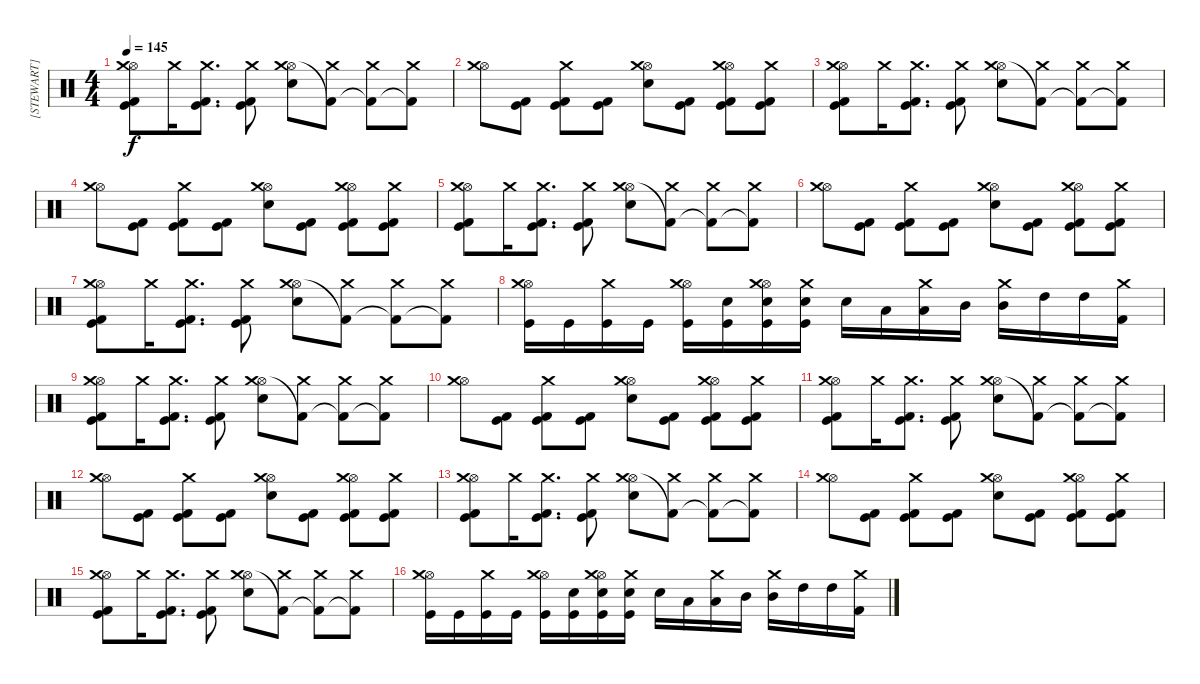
\track ("[STEWART]" "[STEWART]") {instrument percussion}
\staff {score}
\articulation defaults
\ts (4 4)
\tempo 145
\clef neutral
\ks c
("Hi-Hat (open)" "Crash medium (hit)" "Kick (hit) 2" "Kick (hit)").8{dy f} "Crash medium (hit)".16 ("Crash medium (hit)" "Kick (hit) 2" "Kick (hit)").8{d} ("Crash medium (hit)" "Kick (hit) 2" "Kick (hit)").8 ("Hi-Hat (open)" "Crash medium (hit)" "Electric Snare (hit)").8 ("Crash medium (hit)" "Kick (hit) 2"{t}).8 ("Crash medium (hit)" "Kick (hit) 2"{t}).8 ("Crash medium (hit)" "Kick (hit) 2"{t}).8 |
("Hi-Hat (open)" "Crash medium (hit)").8 ("Kick (hit) 2" "Kick (hit)").8 ("Crash medium (hit)" "Kick (hit) 2" "Kick (hit)").8 ("Kick (hit) 2" "Kick (hit)").8 ("Hi-Hat (open)" "Crash medium (hit)" "Electric Snare (hit)").8 ("Kick (hit) 2" "Kick (hit)").8 ("Hi-Hat (open)" "Crash medium (hit)" "Kick (hit) 2" "Kick (hit)").8 ("Crash medium (hit)" "Kick (hit) 2" "Kick (hit)").8 |
("Hi-Hat (open)" "Crash medium (hit)" "Kick (hit) 2" "Kick (hit)").8 "Crash medium (hit)".16 ("Crash medium (hit)" "Kick (hit) 2" "Kick (hit)").8{d} ("Crash medium (hit)" "Kick (hit) 2" "Kick (hit)").8 ("Hi-Hat (open)" "Crash medium (hit)" "Electric Snare (hit)").8 ("Crash medium (hit)" "Kick (hit) 2"{t}).8 ("Crash medium (hit)" "Kick (hit) 2"{t}).8 ("Crash medium (hit)" "Kick (hit) 2"{t}).8 |
("Hi-Hat (open)" "Crash medium (hit)").8 ("Kick (hit) 2" "Kick (hit)").8 ("Crash medium (hit)" "Kick (hit) 2" "Kick (hit)").8 ("Kick (hit) 2" "Kick (hit)").8 ("Hi-Hat (open)" "Crash medium (hit)" "Electric Snare (hit)").8 ("Kick (hit) 2" "Kick (hit)").8 ("Hi-Hat (open)" "Crash medium (hit)" "Kick (hit) 2" "Kick (hit)").8 ("Crash medium (hit)" "Kick (hit) 2" "Kick (hit)").8 |
("Hi-Hat (open)" "Crash medium (hit)" "Kick (hit) 2" "Kick (hit)").8 "Crash medium (hit)".16 ("Crash medium (hit)" "Kick (hit) 2" "Kick (hit)").8{d} ("Crash medium (hit)" "Kick (hit) 2" "Kick (hit)").8 ("Hi-Hat (open)" "Crash medium (hit)" "Electric Snare (hit)").8 ("Crash medium (hit)" "Kick (hit) 2"{t}).8 ("Crash medium (hit)" "Kick (hit) 2"{t}).8 ("Crash medium (hit)" "Kick (hit) 2"{t}).8 |
("Hi-Hat (open)" "Crash medium (hit)").8 ("Kick (hit) 2" "Kick (hit)").8 ("Crash medium (hit)" "Kick (hit) 2" "Kick (hit)").8 ("Kick (hit) 2" "Kick (hit)").8 ("Hi-Hat (open)" "Crash medium (hit)" "Electric Snare (hit)").8 ("Kick (hit) 2" "Kick (hit)").8 ("Hi-Hat (open)" "Crash medium (hit)" "Kick (hit) 2" "Kick (hit)").8 ("Crash medium (hit)" "Kick (hit) 2" "Kick (hit)").8 |
("Hi-Hat (open)" "Crash medium (hit)" "Kick (hit) 2" "Kick (hit)").8 "Crash medium (hit)".16 ("Crash medium (hit)" "Kick (hit) 2" "Kick (hit)").8{d} ("Crash medium (hit)" "Kick (hit) 2" "Kick (hit)").8 ("Hi-Hat (open)" "Crash medium (hit)" "Electric Snare (hit)").8 ("Crash medium (hit)" "Kick (hit) 2"{t}).8 ("Crash medium (hit)" "Kick (hit) 2"{t}).8 ("Crash medium (hit)" "Kick (hit) 2"{t}).8 |
("Hi-Hat (open)" "Crash medium (hit)" "Kick (hit)").16 "Kick (hit)".16 ("Crash medium (hit)" "Kick (hit)").16 "Kick (hit)".16 ("Hi-Hat (open)" "Crash medium (hit)" "Kick (hit)").16 ("Electric Snare (hit)" "Kick (hit)").16 ("Hi-Hat (open)" "Crash medium (hit)" "Electric Snare (hit)" "Kick (hit)").16 ("Crash medium (hit)" "Electric Snare (hit)" "Kick (hit)").16 "Electric Snare (hit)".16 "Low Tom (hit)".16 ("Crash medium (hit)" "Low Tom (hit)").16 "Mid Tom (hit)".16 ("Crash medium (hit)" "Mid Tom (hit)").16 "High Tom (hit)".16 "High Tom (hit)".16 ("Crash medium (hit)" "Kick (hit) 2").16 |
("Hi-Hat (open)" "Crash medium (hit)" "Kick (hit) 2" "Kick (hit)").8 "Crash medium (hit)".16 ("Crash medium (hit)" "Kick (hit) 2" "Kick (hit)").8{d} ("Crash medium (hit)" "Kick (hit) 2" "Kick (hit)").8 ("Hi-Hat (open)" "Crash medium (hit)" "Electric Snare (hit)").8 ("Crash medium (hit)" "Kick (hit) 2"{t}).8 ("Crash medium (hit)" "Kick (hit) 2"{t}).8 ("Crash medium (hit)" "Kick (hit) 2"{t}).8 |
("Hi-Hat (open)" "Crash medium (hit)").8 ("Kick (hit) 2" "Kick (hit)").8 ("Crash medium (hit)" "Kick (hit) 2" "Kick (hit)").8 ("Kick (hit) 2" "Kick (hit)").8 ("Hi-Hat (open)" "Crash medium (hit)" "Electric Snare (hit)").8 ("Kick (hit) 2" "Kick (hit)").8 ("Hi-Hat (open)" "Crash medium (hit)" "Kick (hit) 2" "Kick (hit)").8 ("Crash medium (hit)" "Kick (hit) 2" "Kick (hit)").8 |
("Hi-Hat (open)" "Crash medium (hit)" "Kick (hit) 2" "Kick (hit)").8 "Crash medium (hit)".16 ("Crash medium (hit)" "Kick (hit) 2" "Kick (hit)").8{d} ("Crash medium (hit)" "Kick (hit) 2" "Kick (hit)").8 ("Hi-Hat (open)" "Crash medium (hit)" "Electric Snare (hit)").8 ("Crash medium (hit)" "Kick (hit) 2"{t}).8 ("Crash medium (hit)" "Kick (hit) 2"{t}).8 ("Crash medium (hit)" "Kick (hit) 2"{t}).8 |
("Hi-Hat (open)" "Crash medium (hit)").8 ("Kick (hit) 2" "Kick (hit)").8 ("Crash medium (hit)" "Kick (hit) 2" "Kick (hit)").8 ("Kick (hit) 2" "Kick (hit)").8 ("Hi-Hat (open)" "Crash medium (hit)" "Electric Snare (hit)").8 ("Kick (hit) 2" "Kick (hit)").8 ("Hi-Hat (open)" "Crash medium (hit)" "Kick (hit) 2" "Kick (hit)").8 ("Crash medium (hit)" "Kick (hit) 2" "Kick (hit)").8 |
("Hi-Hat (open)" "Crash medium (hit)" "Kick (hit) 2" "Kick (hit)").8 "Crash medium (hit)".16 ("Crash medium (hit)" "Kick (hit) 2" "Kick (hit)").8{d} ("Crash medium (hit)" "Kick (hit) 2" "Kick (hit)").8 ("Hi-Hat (open)" "Crash medium (hit)" "Electric Snare (hit)").8 ("Crash medium (hit)" "Kick (hit) 2"{t}).8 ("Crash medium (hit)" "Kick (hit) 2"{t}).8 ("Crash medium (hit)" "Kick (hit) 2"{t}).8 |
("Hi-Hat (open)" "Crash medium (hit)").8 ("Kick (hit) 2" "Kick (hit)").8 ("Crash medium (hit)" "Kick (hit) 2" "Kick (hit)").8 ("Kick (hit) 2" "Kick (hit)").8 ("Hi-Hat (open)" "Crash medium (hit)" "Electric Snare (hit)").8 ("Kick (hit) 2" "Kick (hit)").8 ("Hi-Hat (open)" "Crash medium (hit)" "Kick (hit) 2" "Kick (hit)").8 ("Crash medium (hit)" "Kick (hit) 2" "Kick (hit)").8 |
("Hi-Hat (open)" "Crash medium (hit)" "Kick (hit) 2" "Kick (hit)").8 "Crash medium (hit)".16 ("Crash medium (hit)" "Kick (hit) 2" "Kick (hit)").8{d} ("Crash medium (hit)" "Kick (hit) 2" "Kick (hit)").8 ("Hi-Hat (open)" "Crash medium (hit)" "Electric Snare (hit)").8 ("Crash medium (hit)" "Kick (hit) 2"{t}).8 ("Crash medium (hit)" "Kick (hit) 2"{t}).8 ("Crash medium (hit)" "Kick (hit) 2"{t}).8 |
("Hi-Hat (open)" "Crash medium (hit)" "Kick (hit)").16 "Kick (hit)".16 ("Crash medium (hit)" "Kick (hit)").16 "Kick (hit)".16 ("Hi-Hat (open)" "Crash medium (hit)" "Kick (hit)").16 ("Electric Snare (hit)" "Kick (hit)").16 ("Hi-Hat (open)" "Crash medium (hit)" "Electric Snare (hit)" "Kick (hit)").16 ("Crash medium (hit)" "Electric Snare (hit)" "Kick (hit)").16 "Electric Snare (hit)".16 "Low Tom (hit)".16 ("Crash medium (hit)" "Low Tom (hit)").16 "Mid Tom (hit)".16 ("Crash medium (hit)" "Mid Tom (hit)").16 "High Tom (hit)".16 "High Tom (hit)".16 ("Crash medium (hit)" "Kick (hit) 2").16
